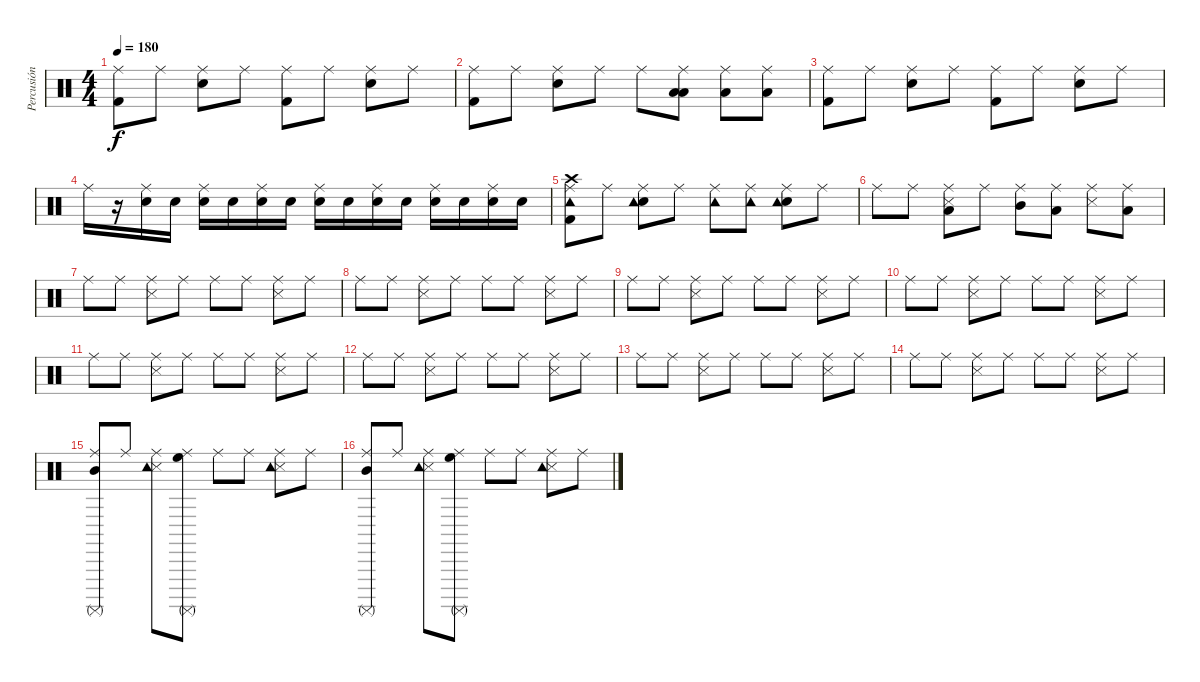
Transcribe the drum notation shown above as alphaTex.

\track ("Percusión" "Percusión") {instrument percussion}
\staff {score}
\articulation defaults
\ts (4 4)
\tempo 180
\clef neutral
\ks c
("Kick (hit) 2" "Ride (middle)").8{dy f} "Ride (middle)".8 ("Electric Snare (hit)" "Ride (middle)").8 "Ride (middle)".8 ("Kick (hit) 2" "Ride (middle)").8 "Ride (middle)".8 ("Electric Snare (hit)" "Ride (middle)").8 "Ride (middle)".8 |
("Kick (hit) 2" "Ride (middle)").8 "Ride (middle)".8 ("Electric Snare (hit)" "Ride (middle)").8 "Ride (middle)".8 "Ride (middle)".8 ("Low Floor Tom (hit)" "Ride (middle)" "Low Tom (hit)").8 ("Ride (middle)" "Low Tom (hit)").8 ("Ride (middle)" "Low Tom (hit)").8 |
("Kick (hit) 2" "Ride (middle)").8 "Ride (middle)".8 ("Electric Snare (hit)" "Ride (middle)").8 "Ride (middle)".8 ("Kick (hit) 2" "Ride (middle)").8 "Ride (middle)".8 ("Electric Snare (hit)" "Ride (middle)").8 "Ride (middle)".8 |
"Ride (middle)".16 r.16 ("Ride (middle)" "Electric Snare (hit)").16 "Electric Snare (hit)".16 ("Ride (middle)" "Electric Snare (hit)").16 "Electric Snare (hit)".16 ("Ride (middle)" "Electric Snare (hit)").16 "Electric Snare (hit)".16 ("Ride (middle)" "Electric Snare (hit)").16 "Electric Snare (hit)".16 ("Ride (middle)" "Electric Snare (hit)").16 "Electric Snare (hit)".16 ("Ride (middle)" "Electric Snare (hit)").16 "Electric Snare (hit)".16 ("Ride (middle)" "Electric Snare (hit)").16 "Electric Snare (hit)".16 |
("Crash high (hit)" "Ride (middle)" "Kick (hit) 2" "Tambourine (hit)").8 "Ride (middle)".8 ("Electric Snare (hit)" "Ride (middle)" "Tambourine (hit)").8 "Ride (middle)".8 ("Ride (middle)" "Tambourine (hit)").8 ("Ride (middle)" "Tambourine (hit)").8 ("Electric Snare (hit)" "Ride (middle)" "Tambourine (hit)").8 "Ride (middle)".8 |
"Ride (middle)".8 "Ride (middle)".8 ("Snare (side stick) 3" "Ride (middle)" "Low Floor Tom (hit)").8 "Ride (middle)".8 ("Ride (middle)" "Mid Tom (hit)").8 ("Ride (middle)" "Low Tom (hit)").8 ("Snare (side stick) 3" "Ride (middle)").8 ("Ride (middle)" "Low Tom (hit)").8 |
"Ride (middle)".8 "Ride (middle)".8 ("Snare (side stick) 3" "Ride (middle)").8 "Ride (middle)".8 "Ride (middle)".8 "Ride (middle)".8 ("Snare (side stick) 3" "Ride (middle)").8 "Ride (middle)".8 |
"Ride (middle)".8 "Ride (middle)".8 ("Snare (side stick) 3" "Ride (middle)").8 "Ride (middle)".8 "Ride (middle)".8 "Ride (middle)".8 ("Snare (side stick) 3" "Ride (middle)").8 "Ride (middle)".8 |
"Ride (middle)".8 "Ride (middle)".8 ("Snare (side stick) 3" "Ride (middle)").8 "Ride (middle)".8 "Ride (middle)".8 "Ride (middle)".8 ("Snare (side stick) 3" "Ride (middle)").8 "Ride (middle)".8 |
"Ride (middle)".8 "Ride (middle)".8 ("Snare (side stick) 3" "Ride (middle)").8 "Ride (middle)".8 "Ride (middle)".8 "Ride (middle)".8 ("Snare (side stick) 3" "Ride (middle)").8 "Ride (middle)".8 |
"Ride (middle)".8 "Ride (middle)".8 ("Snare (side stick) 3" "Ride (middle)").8 "Ride (middle)".8 "Ride (middle)".8 "Ride (middle)".8 ("Snare (side stick) 3" "Ride (middle)").8 "Ride (middle)".8 |
"Ride (middle)".8 "Ride (middle)".8 ("Snare (side stick) 3" "Ride (middle)").8 "Ride (middle)".8 "Ride (middle)".8 "Ride (middle)".8 ("Snare (side stick) 3" "Ride (middle)").8 "Ride (middle)".8 |
"Ride (middle)".8 "Ride (middle)".8 ("Snare (side stick) 3" "Ride (middle)").8 "Ride (middle)".8 "Ride (middle)".8 "Ride (middle)".8 ("Snare (side stick) 3" "Ride (middle)").8 "Ride (middle)".8 |
"Ride (middle)".8 "Ride (middle)".8 ("Snare (side stick) 3" "Ride (middle)").8 "Ride (middle)".8 "Ride (middle)".8 "Ride (middle)".8 ("Snare (side stick) 3" "Ride (middle)").8 "Ride (middle)".8 |
("Ride (middle)" "Surdo (mute)" "Mid Tom (hit)").8 "Ride (middle)".8 ("Snare (side stick) 3" "Ride (middle)" "Tambourine (hit)").8 ("Ride (middle)" "Surdo (mute)" "High Floor Tom (hit)").8 "Ride (middle)".8 "Ride (middle)".8 ("Snare (side stick) 3" "Ride (middle)" "Tambourine (hit)").8 "Ride (middle)".8 |
("Ride (middle)" "Surdo (mute)" "Mid Tom (hit)").8 "Ride (middle)".8 ("Snare (side stick) 3" "Ride (middle)" "Tambourine (hit)").8 ("Ride (middle)" "Surdo (mute)" "High Floor Tom (hit)").8 "Ride (middle)".8 "Ride (middle)".8 ("Snare (side stick) 3" "Ride (middle)" "Tambourine (hit)").8 "Ride (middle)".8
